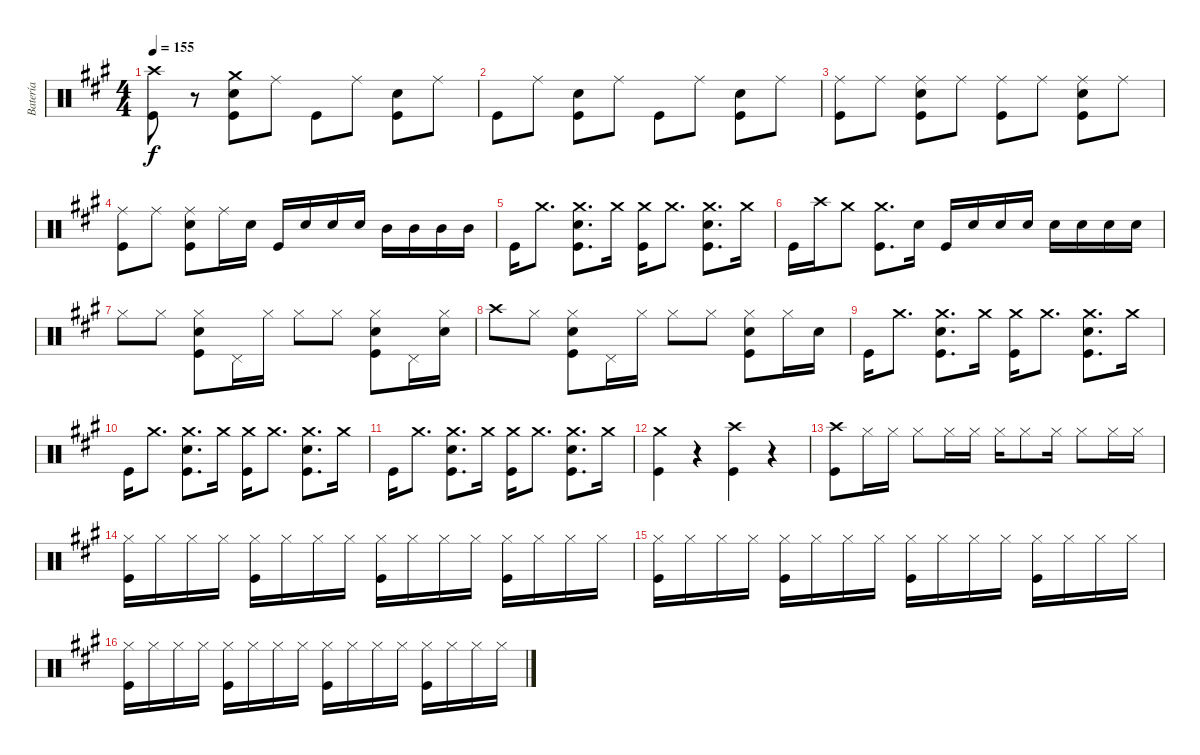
\track ("Batería" "Batería") {instrument percussion}
\staff {score}
\articulation defaults
\ts (4 4)
\tempo 155
\clef neutral
\ks f#minor
("Crash high (hit)" "Kick (hit)").8{dy f} r.8 ("Snare (hit) 2" "Crash medium (hit)" "Kick (hit)").8 "Ride (middle)".8 "Kick (hit)".8 "Ride (middle)".8 ("Snare (hit) 2" "Kick (hit)").8 "Ride (middle)".8 |
"Kick (hit)".8 "Ride (middle)".8 ("Snare (hit) 2" "Kick (hit)").8 "Ride (middle)".8 "Kick (hit)".8 "Ride (middle)".8 ("Snare (hit) 2" "Kick (hit)").8 "Ride (middle)".8 |
("Ride (middle)" "Kick (hit)").8 "Ride (middle)".8 ("Snare (hit) 2" "Ride (middle)" "Kick (hit)").8 "Ride (middle)".8 ("Ride (middle)" "Kick (hit)").8 "Ride (middle)".8 ("Snare (hit) 2" "Ride (middle)" "Kick (hit)").8 "Ride (middle)".8 |
("Ride (middle)" "Kick (hit)").8 "Ride (middle)".8 ("Snare (hit) 2" "Ride (middle)" "Kick (hit)").8 "Ride (middle)".16 "Snare (hit) 2".16 "Kick (hit)".16 "Snare (hit) 2".16 "Snare (hit) 2".16 "Snare (hit) 2".16 "Mid Tom (hit)".16 "Mid Tom (hit)".16 "Mid Tom (hit)".16 "Mid Tom (hit)".16 |
"Kick (hit)".16 "Crash medium (hit)".8{d} ("Snare (hit) 2" "Crash medium (hit)" "Kick (hit)").8{d} "Crash medium (hit)".16 ("Crash medium (hit)" "Kick (hit)").16 "Crash medium (hit)".8{d} ("Snare (hit) 2" "Crash medium (hit)" "Kick (hit)").8{d} "Crash medium (hit)".16 |
"Kick (hit)".16 "Crash high (hit)".16 "Crash medium (hit)".8 ("Crash medium (hit)" "Kick (hit)").8{d} "Snare (hit) 2".16 "Kick (hit)".16 "Snare (hit) 2".16 "Snare (hit) 2".16 "Snare (hit) 2".16 "Snare (hit) 2".16 "Snare (hit) 2".16 "Snare (hit) 2".16 "Snare (hit) 2".16 |
"Hi-Hat (closed)".8 "Hi-Hat (closed)".8 ("Snare (hit) 2" "Hi-Hat (closed)" "Kick (hit)").8 "Pedal Hi-Hat (hit)".16 "Hi-Hat (closed)".16 "Hi-Hat (closed)".8 "Hi-Hat (closed)".8 ("Snare (hit) 2" "Hi-Hat (closed)" "Kick (hit)").8 "Pedal Hi-Hat (hit)".16 ("Snare (hit) 2" "Hi-Hat (closed)").16 |
"Crash high (hit)".8 "Hi-Hat (closed)".8 ("Snare (hit) 2" "Hi-Hat (closed)" "Kick (hit)").8 "Pedal Hi-Hat (hit)".16 "Hi-Hat (closed)".16 "Hi-Hat (closed)".8 "Hi-Hat (closed)".8 ("Snare (hit) 2" "Hi-Hat (closed)" "Kick (hit)").8 "Hi-Hat (closed)".16 "Snare (hit) 2".16 |
"Kick (hit)".16 "Crash medium (hit)".8{d} ("Snare (hit) 2" "Crash medium (hit)" "Kick (hit)").8{d} "Crash medium (hit)".16 ("Crash medium (hit)" "Kick (hit)").16 "Crash medium (hit)".8{d} ("Snare (hit) 2" "Crash medium (hit)" "Kick (hit)").8{d} "Crash medium (hit)".16 |
"Kick (hit)".16 "Crash medium (hit)".8{d} ("Snare (hit) 2" "Crash medium (hit)" "Kick (hit)").8{d} "Crash medium (hit)".16 ("Crash medium (hit)" "Kick (hit)").16 "Crash medium (hit)".8{d} ("Snare (hit) 2" "Crash medium (hit)" "Kick (hit)").8{d} "Crash medium (hit)".16 |
"Kick (hit)".16 "Crash medium (hit)".8{d} ("Snare (hit) 2" "Crash medium (hit)" "Kick (hit)").8{d} "Crash medium (hit)".16 ("Crash medium (hit)" "Kick (hit)").16 "Crash medium (hit)".8{d} ("Snare (hit) 2" "Crash medium (hit)" "Kick (hit)").8{d} "Crash medium (hit)".16 |
("Crash medium (hit)" "Kick (hit)").4 r.4 ("Crash high (hit)" "Kick (hit)").4 r.4 |
("Crash high (hit)" "Kick (hit)").8 "Hi-Hat (closed)".16 "Hi-Hat (closed)".16 "Hi-Hat (closed)".8 "Hi-Hat (closed)".16 "Hi-Hat (closed)".16 "Hi-Hat (closed)".16 "Hi-Hat (closed)".8 "Hi-Hat (closed)".16 "Hi-Hat (closed)".8 "Hi-Hat (closed)".16 "Hi-Hat (closed)".16 |
("Hi-Hat (closed)" "Kick (hit)").16 "Hi-Hat (closed)".16 "Hi-Hat (closed)".16 "Hi-Hat (closed)".16 ("Hi-Hat (closed)" "Kick (hit)").16 "Hi-Hat (closed)".16 "Hi-Hat (closed)".16 "Hi-Hat (closed)".16 ("Hi-Hat (closed)" "Kick (hit)").16 "Hi-Hat (closed)".16 "Hi-Hat (closed)".16 "Hi-Hat (closed)".16 ("Hi-Hat (closed)" "Kick (hit)").16 "Hi-Hat (closed)".16 "Hi-Hat (closed)".16 "Hi-Hat (closed)".16 |
("Hi-Hat (closed)" "Kick (hit)").16 "Hi-Hat (closed)".16 "Hi-Hat (closed)".16 "Hi-Hat (closed)".16 ("Hi-Hat (closed)" "Kick (hit)").16 "Hi-Hat (closed)".16 "Hi-Hat (closed)".16 "Hi-Hat (closed)".16 ("Hi-Hat (closed)" "Kick (hit)").16 "Hi-Hat (closed)".16 "Hi-Hat (closed)".16 "Hi-Hat (closed)".16 ("Hi-Hat (closed)" "Kick (hit)").16 "Hi-Hat (closed)".16 "Hi-Hat (closed)".16 "Hi-Hat (closed)".16 |
("Hi-Hat (closed)" "Kick (hit)").16 "Hi-Hat (closed)".16 "Hi-Hat (closed)".16 "Hi-Hat (closed)".16 ("Hi-Hat (closed)" "Kick (hit)").16 "Hi-Hat (closed)".16 "Hi-Hat (closed)".16 "Hi-Hat (closed)".16 ("Hi-Hat (closed)" "Kick (hit)").16 "Hi-Hat (closed)".16 "Hi-Hat (closed)".16 "Hi-Hat (closed)".16 ("Hi-Hat (closed)" "Kick (hit)").16 "Hi-Hat (closed)".16 "Hi-Hat (closed)".16 "Hi-Hat (closed)".16
